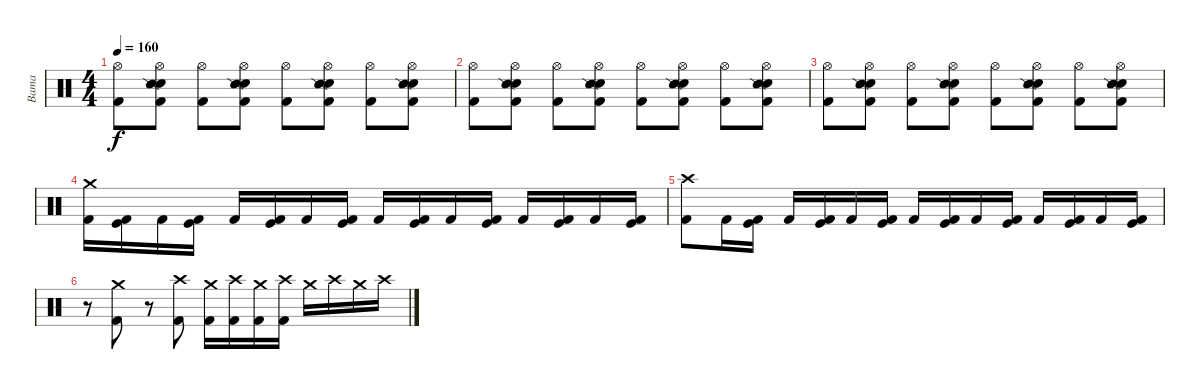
\track ("Bama" "Bama") {instrument percussion}
\staff {score}
\articulation defaults
\ts (4 4)
\tempo 160
\clef neutral
\ks c
("Hi-Hat (open)" "Kick (hit) 2").8{dy f} ("Hi-Hat (open)" "Electric Snare (hit)" "Snare (side stick) 2" "Kick (hit) 2").8 ("Hi-Hat (open)" "Kick (hit) 2").8 ("Hi-Hat (open)" "Electric Snare (hit)" "Snare (side stick) 2" "Kick (hit) 2").8 ("Hi-Hat (open)" "Kick (hit) 2").8 ("Hi-Hat (open)" "Electric Snare (hit)" "Snare (side stick) 2" "Kick (hit) 2").8 ("Hi-Hat (open)" "Kick (hit) 2").8 ("Hi-Hat (open)" "Electric Snare (hit)" "Snare (side stick) 2" "Kick (hit) 2").8 |
("Hi-Hat (open)" "Kick (hit) 2").8 ("Hi-Hat (open)" "Electric Snare (hit)" "Snare (side stick) 2" "Kick (hit) 2").8 ("Hi-Hat (open)" "Kick (hit) 2").8 ("Hi-Hat (open)" "Electric Snare (hit)" "Snare (side stick) 2" "Kick (hit) 2").8 ("Hi-Hat (open)" "Kick (hit) 2").8 ("Hi-Hat (open)" "Electric Snare (hit)" "Snare (side stick) 2" "Kick (hit) 2").8 ("Hi-Hat (open)" "Kick (hit) 2").8 ("Hi-Hat (open)" "Electric Snare (hit)" "Snare (side stick) 2" "Kick (hit) 2").8 |
("Hi-Hat (open)" "Kick (hit) 2").8 ("Hi-Hat (open)" "Electric Snare (hit)" "Snare (side stick) 2" "Kick (hit) 2").8 ("Hi-Hat (open)" "Kick (hit) 2").8 ("Hi-Hat (open)" "Electric Snare (hit)" "Snare (side stick) 2" "Kick (hit) 2").8 ("Hi-Hat (open)" "Kick (hit) 2").8 ("Hi-Hat (open)" "Electric Snare (hit)" "Snare (side stick) 2" "Kick (hit) 2").8 ("Hi-Hat (open)" "Kick (hit) 2").8 ("Hi-Hat (open)" "Electric Snare (hit)" "Snare (side stick) 2" "Kick (hit) 2").8 |
("Crash medium (hit)" "Kick (hit) 2").16 ("Kick (hit)" "Kick (hit) 2").16 "Kick (hit) 2".16 ("Kick (hit)" "Kick (hit) 2").16 "Kick (hit) 2".16 ("Kick (hit)" "Kick (hit) 2").16 "Kick (hit) 2".16 ("Kick (hit)" "Kick (hit) 2").16 "Kick (hit) 2".16 ("Kick (hit)" "Kick (hit) 2").16 "Kick (hit) 2".16 ("Kick (hit)" "Kick (hit) 2").16 "Kick (hit) 2".16 ("Kick (hit)" "Kick (hit) 2").16 "Kick (hit) 2".16 ("Kick (hit)" "Kick (hit) 2").16 |
("Crash high (hit)" "Kick (hit) 2").8 "Kick (hit) 2".16 ("Kick (hit)" "Kick (hit) 2").16 "Kick (hit) 2".16 ("Kick (hit)" "Kick (hit) 2").16 "Kick (hit) 2".16 ("Kick (hit)" "Kick (hit) 2").16 "Kick (hit) 2".16 ("Kick (hit)" "Kick (hit) 2").16 "Kick (hit) 2".16 ("Kick (hit)" "Kick (hit) 2").16 "Kick (hit) 2".16 ("Kick (hit)" "Kick (hit) 2").16 "Kick (hit) 2".16 ("Kick (hit)" "Kick (hit) 2").16 |
r.8 ("Crash medium (hit)" "Kick (hit) 2").8 r.8 ("Crash high (hit)" "Kick (hit) 2").8 ("Crash medium (hit)" "Kick (hit) 2").16 ("Crash high (hit)" "Kick (hit) 2").16 ("Crash medium (hit)" "Kick (hit) 2").16 ("Crash high (hit)" "Kick (hit) 2").16 "Crash medium (hit)".16 "Crash high (hit)".16 "Crash medium (hit)".16 "Crash high (hit)".16
